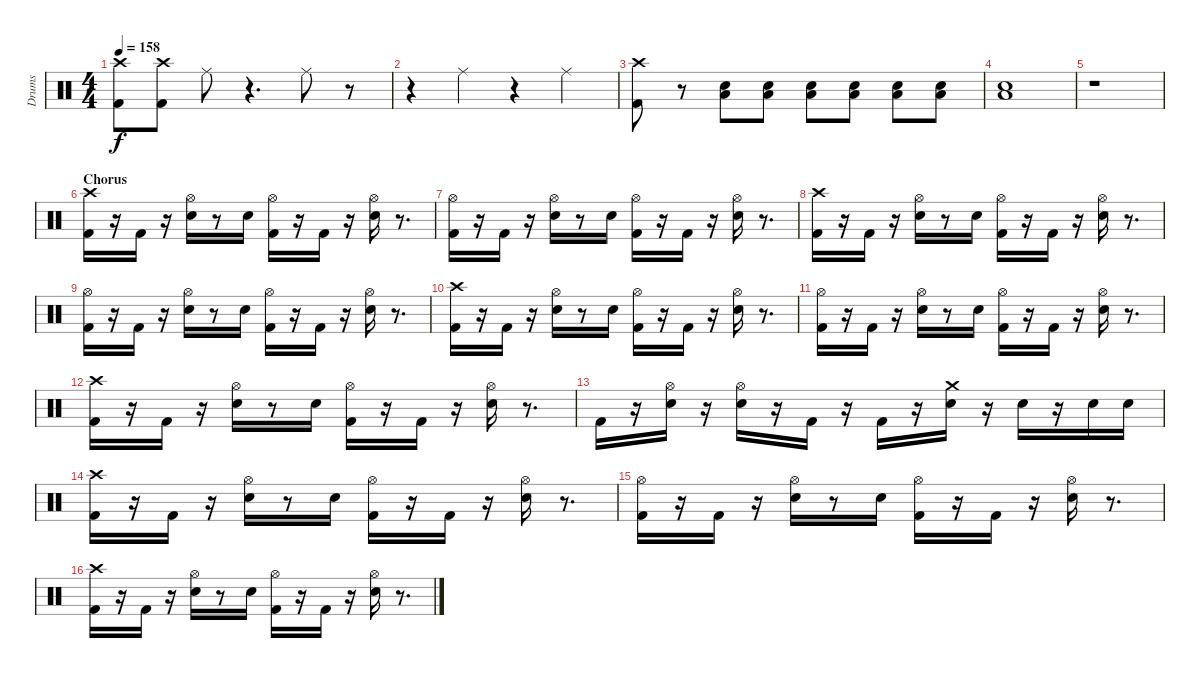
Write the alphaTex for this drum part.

\track ("Drums" "Drums") {instrument percussion}
\staff {score}
\articulation defaults
\ts (4 4)
\tempo 158
\clef neutral
\ks c
("Crash high (hit)" "Kick (hit) 2").8{dy f} ("Crash high (hit)" "Kick (hit) 2").8 "Ride (middle)".8 r.4{d} "Ride (middle)".8 r.8 |
r.4 "Ride (middle)".4 r.4 "Ride (middle)".4 |
("Crash high (hit)" "Kick (hit) 2").8 r.8 ("Electric Snare (hit)" "Low Floor Tom (hit)").8 ("Electric Snare (hit)" "Low Floor Tom (hit)").8 ("Electric Snare (hit)" "Low Floor Tom (hit)").8 ("Electric Snare (hit)" "Low Floor Tom (hit)").8 ("Electric Snare (hit)" "Low Floor Tom (hit)").8 ("Electric Snare (hit)" "Low Floor Tom (hit)").8 |
("Electric Snare (hit)" "Low Floor Tom (hit)").1 |
r.1 |
\section ("" "Chorus")
("Crash high (hit)" "Kick (hit) 2").16 r.16 "Kick (hit) 2".16 r.16 ("Hi-Hat (open)" "Electric Snare (hit)").16 r.8 "Electric Snare (hit)".16 ("Hi-Hat (open)" "Kick (hit) 2").16 r.16 "Kick (hit) 2".16 r.16 ("Hi-Hat (open)" "Electric Snare (hit)").16 r.8{d} |
("Hi-Hat (open)" "Kick (hit) 2").16 r.16 "Kick (hit) 2".16 r.16 ("Hi-Hat (open)" "Electric Snare (hit)").16 r.8 "Electric Snare (hit)".16 ("Hi-Hat (open)" "Kick (hit) 2").16 r.16 "Kick (hit) 2".16 r.16 ("Hi-Hat (open)" "Electric Snare (hit)").16 r.8{d} |
("Crash high (hit)" "Kick (hit) 2").16 r.16 "Kick (hit) 2".16 r.16 ("Hi-Hat (open)" "Electric Snare (hit)").16 r.8 "Electric Snare (hit)".16 ("Hi-Hat (open)" "Kick (hit) 2").16 r.16 "Kick (hit) 2".16 r.16 ("Hi-Hat (open)" "Electric Snare (hit)").16 r.8{d} |
("Hi-Hat (open)" "Kick (hit) 2").16 r.16 "Kick (hit) 2".16 r.16 ("Hi-Hat (open)" "Electric Snare (hit)").16 r.8 "Electric Snare (hit)".16 ("Hi-Hat (open)" "Kick (hit) 2").16 r.16 "Kick (hit) 2".16 r.16 ("Hi-Hat (open)" "Electric Snare (hit)").16 r.8{d} |
("Crash high (hit)" "Kick (hit) 2").16 r.16 "Kick (hit) 2".16 r.16 ("Hi-Hat (open)" "Electric Snare (hit)").16 r.8 "Electric Snare (hit)".16 ("Hi-Hat (open)" "Kick (hit) 2").16 r.16 "Kick (hit) 2".16 r.16 ("Hi-Hat (open)" "Electric Snare (hit)").16 r.8{d} |
("Hi-Hat (open)" "Kick (hit) 2").16 r.16 "Kick (hit) 2".16 r.16 ("Hi-Hat (open)" "Electric Snare (hit)").16 r.8 "Electric Snare (hit)".16 ("Hi-Hat (open)" "Kick (hit) 2").16 r.16 "Kick (hit) 2".16 r.16 ("Hi-Hat (open)" "Electric Snare (hit)").16 r.8{d} |
("Crash high (hit)" "Kick (hit) 2").16 r.16 "Kick (hit) 2".16 r.16 ("Hi-Hat (open)" "Electric Snare (hit)").16 r.8 "Electric Snare (hit)".16 ("Hi-Hat (open)" "Kick (hit) 2").16 r.16 "Kick (hit) 2".16 r.16 ("Hi-Hat (open)" "Electric Snare (hit)").16 r.8{d} |
"Kick (hit) 2".16 r.16 ("Hi-Hat (open)" "Electric Snare (hit)").16 r.16 ("Hi-Hat (open)" "Electric Snare (hit)").16 r.16 "Kick (hit) 2".16 r.16 "Kick (hit) 2".16 r.16 ("Crash medium (hit)" "Electric Snare (hit)").16 r.16 "Electric Snare (hit)".16 r.16 "Electric Snare (hit)".16 "Electric Snare (hit)".16 |
("Crash high (hit)" "Kick (hit) 2").16 r.16 "Kick (hit) 2".16 r.16 ("Hi-Hat (open)" "Electric Snare (hit)").16 r.8 "Electric Snare (hit)".16 ("Hi-Hat (open)" "Kick (hit) 2").16 r.16 "Kick (hit) 2".16 r.16 ("Hi-Hat (open)" "Electric Snare (hit)").16 r.8{d} |
("Hi-Hat (open)" "Kick (hit) 2").16 r.16 "Kick (hit) 2".16 r.16 ("Hi-Hat (open)" "Electric Snare (hit)").16 r.8 "Electric Snare (hit)".16 ("Hi-Hat (open)" "Kick (hit) 2").16 r.16 "Kick (hit) 2".16 r.16 ("Hi-Hat (open)" "Electric Snare (hit)").16 r.8{d} |
("Crash high (hit)" "Kick (hit) 2").16 r.16 "Kick (hit) 2".16 r.16 ("Hi-Hat (open)" "Electric Snare (hit)").16 r.8 "Electric Snare (hit)".16 ("Hi-Hat (open)" "Kick (hit) 2").16 r.16 "Kick (hit) 2".16 r.16 ("Hi-Hat (open)" "Electric Snare (hit)").16 r.8{d}
